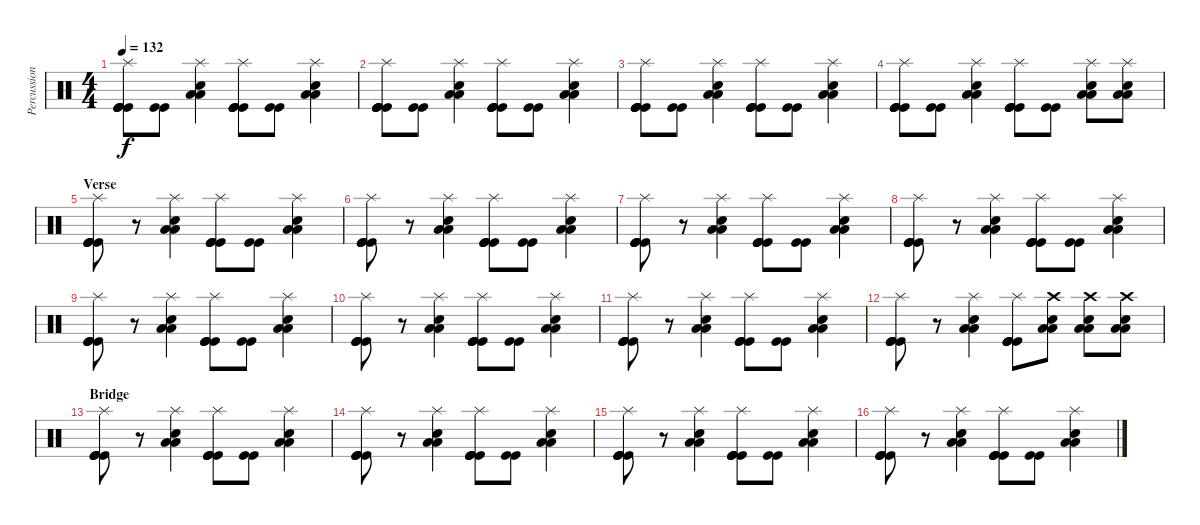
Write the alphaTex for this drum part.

\track ("Percussion" "Percussion") {instrument percussion}
\staff {score}
\articulation defaults
\ts (4 4)
\tempo 132
\clef neutral
\ks c
("Splash (hit)" "Kick (hit)" "Kick (hit)" "Kick (hit)" "Kick (hit)").8{dy f} ("Kick (hit)" "Kick (hit)").8 ("Splash (hit)" "Low Tom (hit)" "Low Tom (hit)" "Electric Snare (hit)").4 ("Splash (hit)" "Kick (hit)" "Kick (hit)" "Kick (hit)" "Kick (hit)").8 ("Kick (hit)" "Kick (hit)").8 ("Splash (hit)" "Low Tom (hit)" "Low Tom (hit)" "Electric Snare (hit)").4 |
("Splash (hit)" "Kick (hit)" "Kick (hit)" "Kick (hit)" "Kick (hit)").8 ("Kick (hit)" "Kick (hit)").8 ("Splash (hit)" "Low Tom (hit)" "Low Tom (hit)" "Electric Snare (hit)").4 ("Splash (hit)" "Kick (hit)" "Kick (hit)" "Kick (hit)" "Kick (hit)").8 ("Kick (hit)" "Kick (hit)").8 ("Splash (hit)" "Low Tom (hit)" "Low Tom (hit)" "Electric Snare (hit)").4 |
("Splash (hit)" "Kick (hit)" "Kick (hit)" "Kick (hit)" "Kick (hit)").8 ("Kick (hit)" "Kick (hit)").8 ("Splash (hit)" "Low Tom (hit)" "Low Tom (hit)" "Electric Snare (hit)").4 ("Splash (hit)" "Kick (hit)" "Kick (hit)" "Kick (hit)" "Kick (hit)").8 ("Kick (hit)" "Kick (hit)").8 ("Splash (hit)" "Low Tom (hit)" "Low Tom (hit)" "Electric Snare (hit)").4 |
("Splash (hit)" "Kick (hit)" "Kick (hit)" "Kick (hit)" "Kick (hit)").8 ("Kick (hit)" "Kick (hit)").8 ("Splash (hit)" "Low Tom (hit)" "Low Tom (hit)" "Electric Snare (hit)").4 ("Splash (hit)" "Kick (hit)" "Kick (hit)" "Kick (hit)" "Kick (hit)").8 ("Kick (hit)" "Kick (hit)").8 ("Splash (hit)" "Low Tom (hit)" "Low Tom (hit)" "Electric Snare (hit)").8 ("Splash (hit)" "Low Tom (hit)" "Low Tom (hit)" "Electric Snare (hit)").8 |
\section ("" "Verse")
("Splash (hit)" "Kick (hit)" "Kick (hit)" "Kick (hit)" "Kick (hit)").8 r.8 ("Splash (hit)" "Low Tom (hit)" "Low Tom (hit)" "Electric Snare (hit)").4 ("Splash (hit)" "Kick (hit)" "Kick (hit)" "Kick (hit)" "Kick (hit)").8 ("Kick (hit)" "Kick (hit)").8 ("Splash (hit)" "Low Tom (hit)" "Low Tom (hit)" "Electric Snare (hit)").4 |
("Splash (hit)" "Kick (hit)" "Kick (hit)" "Kick (hit)" "Kick (hit)").8 r.8 ("Splash (hit)" "Low Tom (hit)" "Low Tom (hit)" "Electric Snare (hit)").4 ("Splash (hit)" "Kick (hit)" "Kick (hit)" "Kick (hit)" "Kick (hit)").8 ("Kick (hit)" "Kick (hit)").8 ("Splash (hit)" "Low Tom (hit)" "Low Tom (hit)" "Electric Snare (hit)").4 |
("Splash (hit)" "Kick (hit)" "Kick (hit)" "Kick (hit)" "Kick (hit)").8 r.8 ("Splash (hit)" "Low Tom (hit)" "Low Tom (hit)" "Electric Snare (hit)").4 ("Splash (hit)" "Kick (hit)" "Kick (hit)" "Kick (hit)" "Kick (hit)").8 ("Kick (hit)" "Kick (hit)").8 ("Splash (hit)" "Low Tom (hit)" "Low Tom (hit)" "Electric Snare (hit)").4 |
("Splash (hit)" "Kick (hit)" "Kick (hit)" "Kick (hit)" "Kick (hit)").8 r.8 ("Splash (hit)" "Low Tom (hit)" "Low Tom (hit)" "Electric Snare (hit)").4 ("Splash (hit)" "Kick (hit)" "Kick (hit)" "Kick (hit)" "Kick (hit)").8 ("Kick (hit)" "Kick (hit)").8 ("Splash (hit)" "Low Tom (hit)" "Low Tom (hit)" "Electric Snare (hit)").4 |
("Splash (hit)" "Kick (hit)" "Kick (hit)" "Kick (hit)" "Kick (hit)").8 r.8 ("Splash (hit)" "Low Tom (hit)" "Low Tom (hit)" "Electric Snare (hit)").4 ("Splash (hit)" "Kick (hit)" "Kick (hit)" "Kick (hit)" "Kick (hit)").8 ("Kick (hit)" "Kick (hit)").8 ("Splash (hit)" "Low Tom (hit)" "Low Tom (hit)" "Electric Snare (hit)").4 |
("Splash (hit)" "Kick (hit)" "Kick (hit)" "Kick (hit)" "Kick (hit)").8 r.8 ("Splash (hit)" "Low Tom (hit)" "Low Tom (hit)" "Electric Snare (hit)").4 ("Splash (hit)" "Kick (hit)" "Kick (hit)" "Kick (hit)" "Kick (hit)").8 ("Kick (hit)" "Kick (hit)").8 ("Splash (hit)" "Low Tom (hit)" "Low Tom (hit)" "Electric Snare (hit)").4 |
("Splash (hit)" "Kick (hit)" "Kick (hit)" "Kick (hit)" "Kick (hit)").8 r.8 ("Splash (hit)" "Low Tom (hit)" "Low Tom (hit)" "Electric Snare (hit)").4 ("Splash (hit)" "Kick (hit)" "Kick (hit)" "Kick (hit)" "Kick (hit)").8 ("Kick (hit)" "Kick (hit)").8 ("Splash (hit)" "Low Tom (hit)" "Low Tom (hit)" "Electric Snare (hit)").4 |
("Splash (hit)" "Kick (hit)" "Kick (hit)" "Kick (hit)" "Kick (hit)").8 r.8 ("Splash (hit)" "Low Tom (hit)" "Low Tom (hit)" "Electric Snare (hit)").4 ("Splash (hit)" "Kick (hit)" "Kick (hit)" "Kick (hit)" "Kick (hit)").8 ("Crash high (hit)" "Low Tom (hit)" "Low Tom (hit)" "Electric Snare (hit)").8 ("Crash high (hit)" "Low Tom (hit)" "Low Tom (hit)" "Electric Snare (hit)").8 ("Crash high (hit)" "Low Tom (hit)" "Low Tom (hit)" "Electric Snare (hit)").8 |
\section ("" "Bridge")
("Splash (hit)" "Kick (hit)" "Kick (hit)" "Kick (hit)" "Kick (hit)").8 r.8 ("Splash (hit)" "Low Tom (hit)" "Low Tom (hit)" "Electric Snare (hit)").4 ("Splash (hit)" "Kick (hit)" "Kick (hit)" "Kick (hit)" "Kick (hit)").8 ("Kick (hit)" "Kick (hit)").8 ("Splash (hit)" "Low Tom (hit)" "Low Tom (hit)" "Electric Snare (hit)").4 |
("Splash (hit)" "Kick (hit)" "Kick (hit)" "Kick (hit)" "Kick (hit)").8 r.8 ("Splash (hit)" "Low Tom (hit)" "Low Tom (hit)" "Electric Snare (hit)").4 ("Splash (hit)" "Kick (hit)" "Kick (hit)" "Kick (hit)" "Kick (hit)").8 ("Kick (hit)" "Kick (hit)").8 ("Splash (hit)" "Low Tom (hit)" "Low Tom (hit)" "Electric Snare (hit)").4 |
("Splash (hit)" "Kick (hit)" "Kick (hit)" "Kick (hit)" "Kick (hit)").8 r.8 ("Splash (hit)" "Low Tom (hit)" "Low Tom (hit)" "Electric Snare (hit)").4 ("Splash (hit)" "Kick (hit)" "Kick (hit)" "Kick (hit)" "Kick (hit)").8 ("Kick (hit)" "Kick (hit)").8 ("Splash (hit)" "Low Tom (hit)" "Low Tom (hit)" "Electric Snare (hit)").4 |
("Splash (hit)" "Kick (hit)" "Kick (hit)" "Kick (hit)" "Kick (hit)").8 r.8 ("Splash (hit)" "Low Tom (hit)" "Low Tom (hit)" "Electric Snare (hit)").4 ("Splash (hit)" "Kick (hit)" "Kick (hit)" "Kick (hit)" "Kick (hit)").8 ("Kick (hit)" "Kick (hit)").8 ("Splash (hit)" "Low Tom (hit)" "Low Tom (hit)" "Electric Snare (hit)").4
